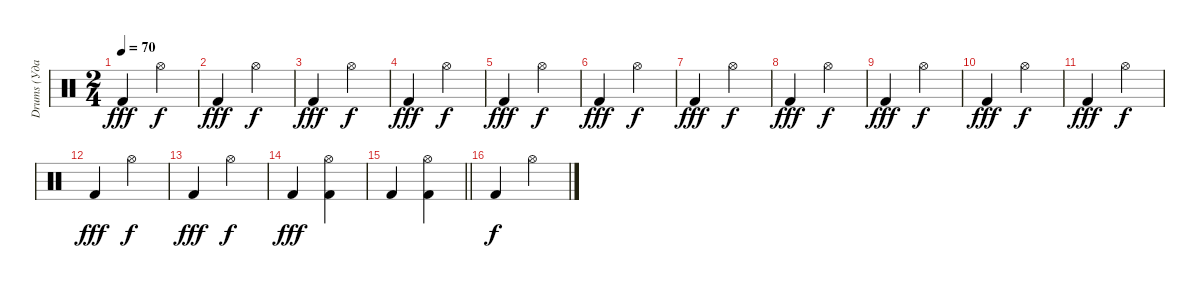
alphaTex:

\track ("Drums (Ударные)" "Drums (Уда") {instrument percussion}
\staff {score}
\articulation defaults
\ts (2 4)
\tempo 70
\clef neutral
\ks c "Kick (hit) 2".4{dy fff} "Hi-Hat (open)".4{dy f}
|
"Kick (hit) 2".4{dy fff} "Hi-Hat (open)".4{dy f} |
"Kick (hit) 2".4{dy fff} "Hi-Hat (open)".4{dy f} |
"Kick (hit) 2".4{dy fff} "Hi-Hat (open)".4{dy f} |
"Kick (hit) 2".4{dy fff} "Hi-Hat (open)".4{dy f} |
"Kick (hit) 2".4{dy fff} "Hi-Hat (open)".4{dy f} |
"Kick (hit) 2".4{dy fff} "Hi-Hat (open)".4{dy f} |
"Kick (hit) 2".4{dy fff} "Hi-Hat (open)".4{dy f} |
"Kick (hit) 2".4{dy fff} "Hi-Hat (open)".4{dy f} |
"Kick (hit) 2".4{dy fff} "Hi-Hat (open)".4{dy f} |
"Kick (hit) 2".4{dy fff} "Hi-Hat (open)".4{dy f} |
"Kick (hit) 2".4{dy fff} "Hi-Hat (open)".4{dy f} |
"Kick (hit) 2".4{dy fff} "Hi-Hat (open)".4{dy f} |
"Kick (hit) 2".4{dy fff} ("Kick (hit) 2" "Hi-Hat (open)").4 |
\barLineRight lightlight "Kick (hit) 2".4
("Kick (hit) 2" "Hi-Hat (open)").4 |
"Kick (hit) 2".4{dy f} "Hi-Hat (open)".4
